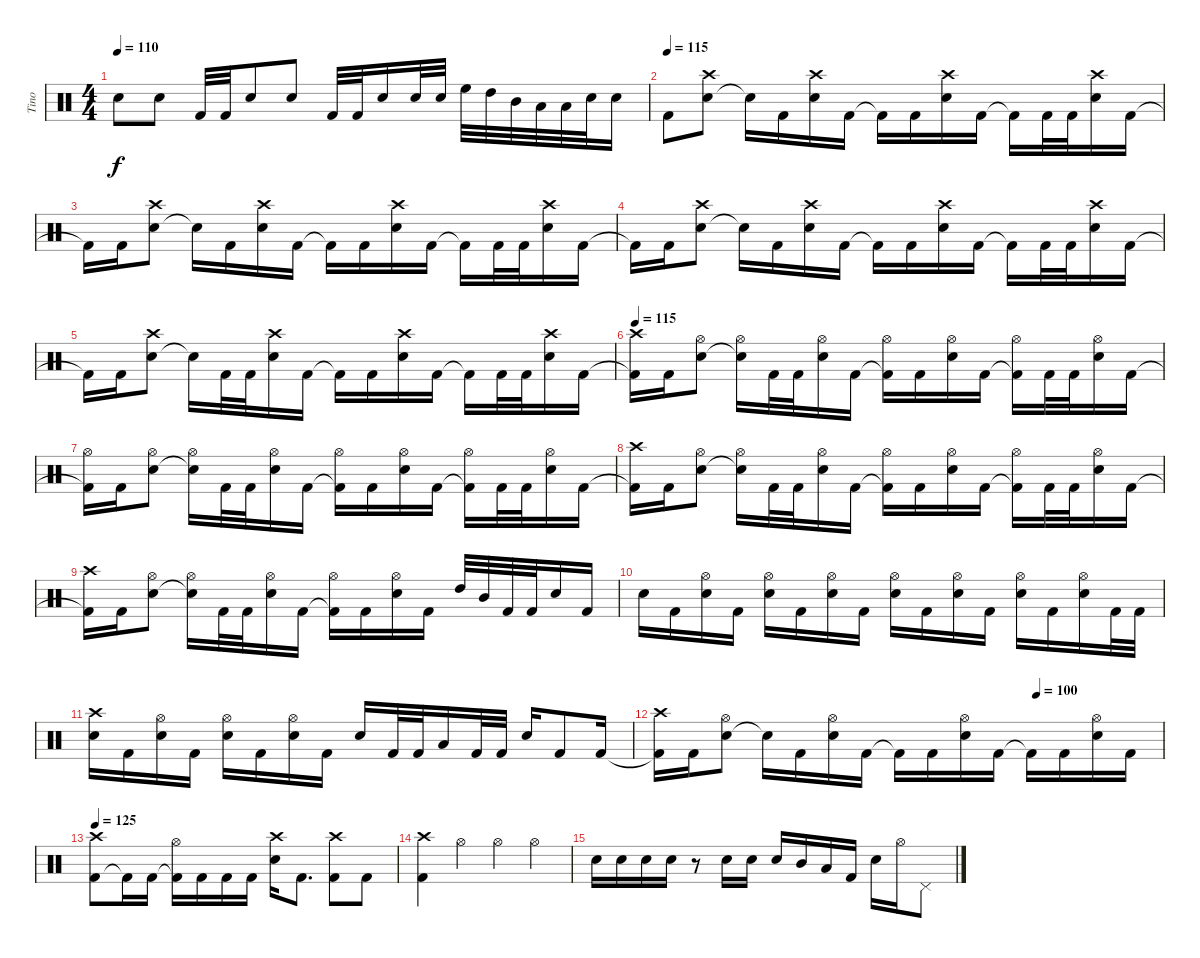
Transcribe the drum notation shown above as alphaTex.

\track ("Tino" "Tino") {instrument percussion}
\staff {score}
\articulation defaults
\ts (4 4)
\tempo 110
\clef neutral
\ks c "Electric Snare (hit)".8{dy f} "Electric Snare (hit)".8 "Kick (hit) 2".32 "Kick (hit) 2".32 "Electric Snare (hit)".8 "Electric Snare (hit)".8 "Kick (hit) 2".32 "Kick (hit) 2".32 "Electric Snare (hit)".16 "Electric Snare (hit)".32 "Electric Snare (hit)".32 "High Floor Tom (hit)".32 "High Tom (hit)".32 "Mid Tom (hit)".32 "Low Tom (hit)".32 "Low Floor Tom (hit)".32 "Electric Snare (hit)".32 "Electric Snare (hit)".16
|
\tempo (115)
"Kick (hit) 2".8 ("Electric Snare (hit)" "Crash high (hit)").8 "Electric Snare (hit)"{t}.16 "Kick (hit) 2".16 ("Electric Snare (hit)" "Crash high (hit)").16 "Kick (hit) 2".16 "Kick (hit) 2"{t}.16 "Kick (hit) 2".16 ("Electric Snare (hit)" "Crash high (hit)").16 "Kick (hit) 2".16 "Kick (hit) 2"{t}.16 "Kick (hit) 2".32 "Kick (hit) 2".32 ("Electric Snare (hit)" "Crash high (hit)").16 "Kick (hit) 2".16 |
"Kick (hit) 2"{t}.16 "Kick (hit) 2".16 ("Electric Snare (hit)" "Crash high (hit)").8 "Electric Snare (hit)"{t}.16 "Kick (hit) 2".16 ("Electric Snare (hit)" "Crash high (hit)").16 "Kick (hit) 2".16 "Kick (hit) 2"{t}.16 "Kick (hit) 2".16 ("Electric Snare (hit)" "Crash high (hit)").16 "Kick (hit) 2".16 "Kick (hit) 2"{t}.16 "Kick (hit) 2".32 "Kick (hit) 2".32 ("Electric Snare (hit)" "Crash high (hit)").16 "Kick (hit) 2".16 |
"Kick (hit) 2"{t}.16 "Kick (hit) 2".16 ("Electric Snare (hit)" "Crash high (hit)").8 "Electric Snare (hit)"{t}.16 "Kick (hit) 2".16 ("Electric Snare (hit)" "Crash high (hit)").16 "Kick (hit) 2".16 "Kick (hit) 2"{t}.16 "Kick (hit) 2".16 ("Electric Snare (hit)" "Crash high (hit)").16 "Kick (hit) 2".16 "Kick (hit) 2"{t}.16 "Kick (hit) 2".32 "Kick (hit) 2".32 ("Electric Snare (hit)" "Crash high (hit)").16 "Kick (hit) 2".16 |
"Kick (hit) 2"{t}.16 "Kick (hit) 2".16 ("Electric Snare (hit)" "Crash high (hit)").8 "Electric Snare (hit)"{t}.16 "Kick (hit) 2".32 "Kick (hit) 2".32 ("Electric Snare (hit)" "Crash high (hit)").16 "Kick (hit) 2".16 "Kick (hit) 2"{t}.16 "Kick (hit) 2".16 ("Electric Snare (hit)" "Crash high (hit)").16 "Kick (hit) 2".16 "Kick (hit) 2"{t}.16 "Kick (hit) 2".32 "Kick (hit) 2".32 ("Electric Snare (hit)" "Crash high (hit)").16 "Kick (hit) 2".16 |
\tempo 115
("Kick (hit) 2"{t} "Crash high (hit)").16 "Kick (hit) 2".16 ("Electric Snare (hit)" "Hi-Hat (open)").8 ("Electric Snare (hit)"{t} "Hi-Hat (open)").16 "Kick (hit) 2".32 "Kick (hit) 2".32 ("Electric Snare (hit)" "Hi-Hat (open)").16 "Kick (hit) 2".16 ("Kick (hit) 2"{t} "Hi-Hat (open)").16 "Kick (hit) 2".16 ("Electric Snare (hit)" "Hi-Hat (open)").16 "Kick (hit) 2".16 ("Kick (hit) 2"{t} "Hi-Hat (open)").16 "Kick (hit) 2".32 "Kick (hit) 2".32 ("Electric Snare (hit)" "Hi-Hat (open)").16 "Kick (hit) 2".16 |
("Kick (hit) 2"{t} "Hi-Hat (open)").16 "Kick (hit) 2".16 ("Electric Snare (hit)" "Hi-Hat (open)").8 ("Electric Snare (hit)"{t} "Hi-Hat (open)").16 "Kick (hit) 2".32 "Kick (hit) 2".32 ("Electric Snare (hit)" "Hi-Hat (open)").16 "Kick (hit) 2".16 ("Kick (hit) 2"{t} "Hi-Hat (open)").16 "Kick (hit) 2".16 ("Electric Snare (hit)" "Hi-Hat (open)").16 "Kick (hit) 2".16 ("Kick (hit) 2"{t} "Hi-Hat (open)").16 "Kick (hit) 2".32 "Kick (hit) 2".32 ("Electric Snare (hit)" "Hi-Hat (open)").16 "Kick (hit) 2".16 |
("Kick (hit) 2"{t} "Crash high (hit)").16 "Kick (hit) 2".16 ("Electric Snare (hit)" "Hi-Hat (open)").8 ("Electric Snare (hit)"{t} "Hi-Hat (open)").16 "Kick (hit) 2".32 "Kick (hit) 2".32 ("Electric Snare (hit)" "Hi-Hat (open)").16 "Kick (hit) 2".16 ("Kick (hit) 2"{t} "Hi-Hat (open)").16 "Kick (hit) 2".16 ("Electric Snare (hit)" "Hi-Hat (open)").16 "Kick (hit) 2".16 ("Kick (hit) 2"{t} "Hi-Hat (open)").16 "Kick (hit) 2".32 "Kick (hit) 2".32 ("Electric Snare (hit)" "Hi-Hat (open)").16 "Kick (hit) 2".16 |
("Kick (hit) 2"{t} "Crash high (hit)").16 "Kick (hit) 2".16 ("Electric Snare (hit)" "Hi-Hat (open)").8 ("Electric Snare (hit)"{t} "Hi-Hat (open)").16 "Kick (hit) 2".32 "Kick (hit) 2".32 ("Electric Snare (hit)" "Hi-Hat (open)").16 "Kick (hit) 2".16 ("Kick (hit) 2"{t} "Hi-Hat (open)").16 "Kick (hit) 2".16 ("Electric Snare (hit)" "Hi-Hat (open)").16 "Kick (hit) 2".16 "High Tom (hit)".32 "Mid Tom (hit)".32 "Kick (hit) 2".32 "Kick (hit) 2".32 "Electric Snare (hit)".16 "Kick (hit) 2".16 |
"Electric Snare (hit)".16 "Kick (hit) 2".16 ("Electric Snare (hit)" "Hi-Hat (open)").16 "Kick (hit) 2".16 ("Electric Snare (hit)" "Hi-Hat (open)").16 "Kick (hit) 2".16 ("Electric Snare (hit)" "Hi-Hat (open)").16 "Kick (hit) 2".16 ("Electric Snare (hit)" "Hi-Hat (open)").16 "Kick (hit) 2".16 ("Electric Snare (hit)" "Hi-Hat (open)").16 "Kick (hit) 2".16 ("Electric Snare (hit)" "Hi-Hat (open)").16 "Kick (hit) 2".16 ("Electric Snare (hit)" "Hi-Hat (open)").16 "Kick (hit) 2".32 "Kick (hit) 2".32 |
("Electric Snare (hit)" "Crash high (hit)").16 "Kick (hit) 2".16 ("Electric Snare (hit)" "Hi-Hat (open)").16 "Kick (hit) 2".16 ("Electric Snare (hit)" "Hi-Hat (open)").16 "Kick (hit) 2".16 ("Electric Snare (hit)" "Hi-Hat (open)").16 "Kick (hit) 2".16 "Electric Snare (hit)".16 "Kick (hit) 2".32 "Kick (hit) 2".32 "Low Tom (hit)".16 "Kick (hit) 2".32 "Kick (hit) 2".32 "Electric Snare (hit)".16 "Kick (hit) 2".8 "Kick (hit) 2".16 |
\tempo (100 0.75)
("Kick (hit) 2"{t} "Crash high (hit)").16 "Kick (hit) 2".16 ("Electric Snare (hit)" "Hi-Hat (open)").8 "Electric Snare (hit)"{t}.16 "Kick (hit) 2".16 ("Electric Snare (hit)" "Hi-Hat (open)").16 "Kick (hit) 2".16 "Kick (hit) 2"{t}.16 "Kick (hit) 2".16 ("Electric Snare (hit)" "Hi-Hat (open)").16 "Kick (hit) 2".16 "Kick (hit) 2"{t}.16 "Kick (hit) 2".16 ("Electric Snare (hit)" "Hi-Hat (open)").16 "Kick (hit) 2".16 |
\tempo 125
("Kick (hit) 2" "Crash high (hit)").8 "Kick (hit) 2"{t}.16 "Kick (hit) 2".16 ("Kick (hit) 2"{t} "Hi-Hat (open)").16 "Kick (hit) 2".16 "Kick (hit) 2".16 "Kick (hit) 2".16 ("Electric Snare (hit)" "Crash high (hit)").16 "Kick (hit) 2".8{d} ("Kick (hit) 2" "Crash high (hit)").8 "Kick (hit) 2".8 |
("Kick (hit) 2" "Crash high (hit)").4 "Hi-Hat (open)".4 "Hi-Hat (open)".4 "Hi-Hat (open)".4 |
"Electric Snare (hit)".16 "Electric Snare (hit)".16 "Electric Snare (hit)".16 "Electric Snare (hit)".16 r.8 "Electric Snare (hit)".16 "Electric Snare (hit)".16 "Electric Snare (hit)".16 "Mid Tom (hit)".16 "Low Tom (hit)".16 "Kick (hit) 2".16 "Electric Snare (hit)".16 "Hi-Hat (open)".16 "Pedal Hi-Hat (hit)".8
